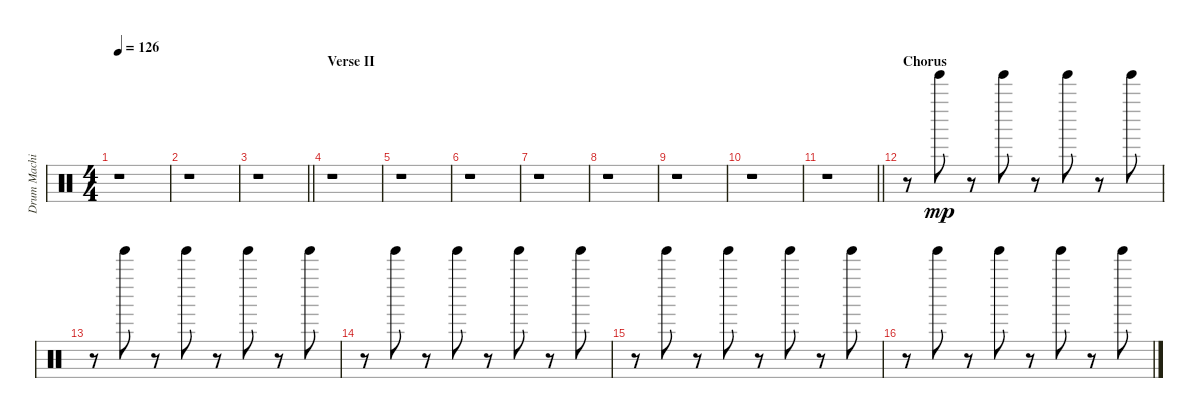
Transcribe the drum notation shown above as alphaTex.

\track ("Drum Machine" "Drum Machi") {instrument percussion}
\staff {score}
\articulation defaults
\ts (4 4)
\tempo 126
\clef neutral
\ks c
r.1{dy mp} |
r.1 |
\barLineRight lightlight
r.1 |
\section ("" "Verse II")
r.1 |
r.1 |
r.1 |
r.1 |
r.1 |
r.1 |
r.1 |
\barLineRight lightlight
r.1 |
\section ("" "Chorus")
r.8 "Tinkle Bell (hit)".8 r.8 "Tinkle Bell (hit)".8 r.8 "Tinkle Bell (hit)".8 r.8 "Tinkle Bell (hit)".8 |
r.8 "Tinkle Bell (hit)".8 r.8 "Tinkle Bell (hit)".8 r.8 "Tinkle Bell (hit)".8 r.8 "Tinkle Bell (hit)".8 |
r.8 "Tinkle Bell (hit)".8 r.8 "Tinkle Bell (hit)".8 r.8 "Tinkle Bell (hit)".8 r.8 "Tinkle Bell (hit)".8 |
r.8 "Tinkle Bell (hit)".8 r.8 "Tinkle Bell (hit)".8 r.8 "Tinkle Bell (hit)".8 r.8 "Tinkle Bell (hit)".8 |
r.8 "Tinkle Bell (hit)".8 r.8 "Tinkle Bell (hit)".8 r.8 "Tinkle Bell (hit)".8 r.8 "Tinkle Bell (hit)".8
